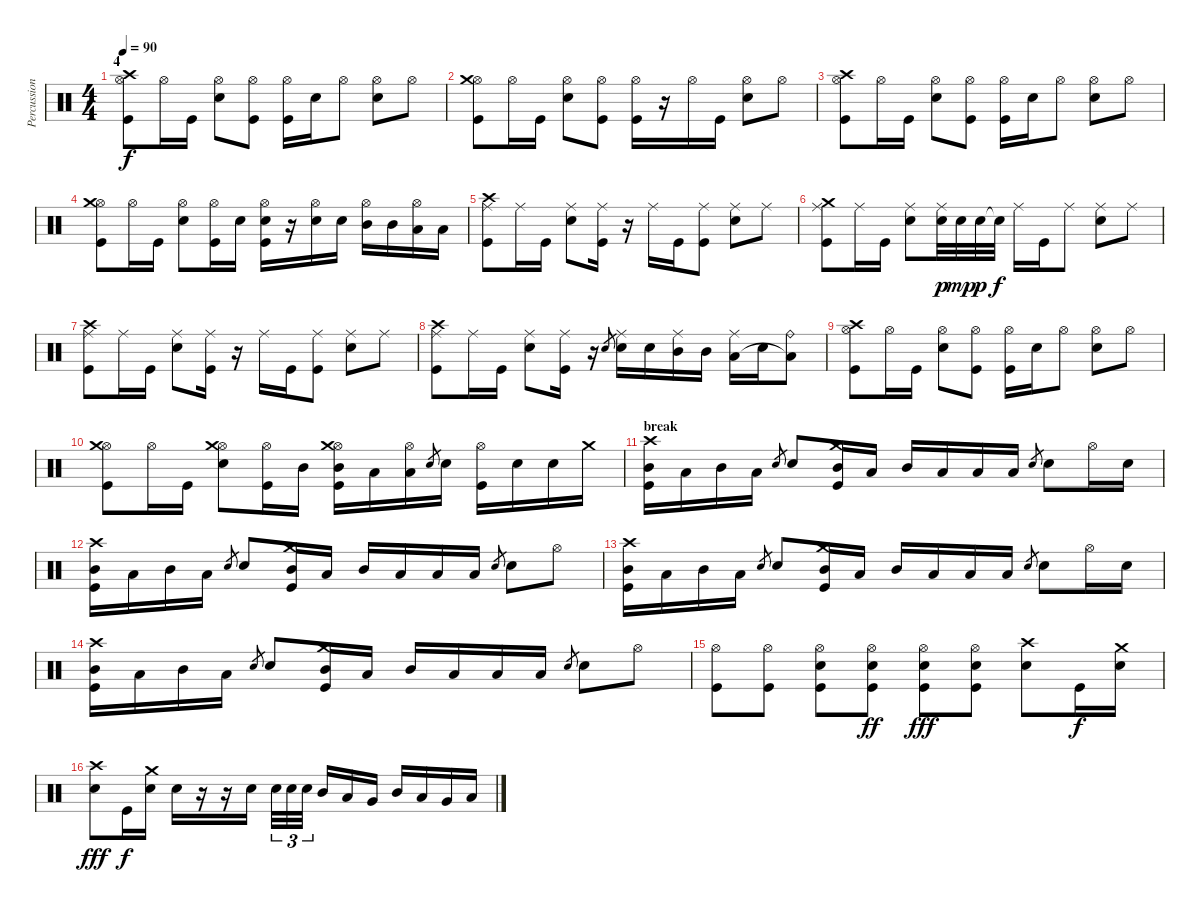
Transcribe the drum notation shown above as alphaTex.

\track ("Percussions" "Percussion") {instrument percussion}
\staff {score}
\articulation defaults
\ts (4 4)
\section ("" "4")
\tempo 90
\clef neutral
\ks c
("Hi-Hat (open)" "Crash high (hit)" "Kick (hit)").8{dy f} "Hi-Hat (open)".16 "Kick (hit)".16 ("Hi-Hat (open)" "Snare (hit) 2").8 ("Hi-Hat (open)" "Kick (hit)").8 ("Hi-Hat (open)" "Kick (hit)").16 "Snare (hit) 2".16 "Hi-Hat (open)".8 ("Hi-Hat (open)" "Snare (hit) 2").8 "Hi-Hat (open)".8 |
("Hi-Hat (open)" "Crash medium (hit)" "Kick (hit)").8 "Hi-Hat (open)".16 "Kick (hit)".16 ("Hi-Hat (open)" "Snare (hit) 2").8 ("Hi-Hat (open)" "Kick (hit)").8 ("Hi-Hat (open)" "Kick (hit)").16 r.16 "Hi-Hat (open)".16 "Kick (hit)".16 ("Hi-Hat (open)" "Snare (hit) 2").8 "Hi-Hat (open)".8 |
("Hi-Hat (open)" "Crash high (hit)" "Kick (hit)").8 "Hi-Hat (open)".16 "Kick (hit)".16 ("Hi-Hat (open)" "Snare (hit) 2").8 ("Hi-Hat (open)" "Kick (hit)").8 ("Hi-Hat (open)" "Kick (hit)").16 "Snare (hit) 2".16 "Hi-Hat (open)".8 ("Hi-Hat (open)" "Snare (hit) 2").8 "Hi-Hat (open)".8 |
("Hi-Hat (open)" "Crash medium (hit)" "Kick (hit)").8 "Hi-Hat (open)".16 "Kick (hit)".16 ("Hi-Hat (open)" "Snare (hit) 2").8 ("Hi-Hat (open)" "Kick (hit)").16 "Snare (hit) 2".16 ("Hi-Hat (open)" "Snare (hit) 2" "Kick (hit)").16 r.16 ("Hi-Hat (open)" "Snare (hit) 2").16 "Snare (hit) 2".16 ("Hi-Hat (open)" "Mid Tom (hit)").16 "Mid Tom (hit)".16 ("Hi-Hat (open)" "Low Tom (hit)").16 "Low Tom (hit)".16 |
("Ride (middle)" "Crash high (hit)" "Kick (hit)").8 "Ride (middle)".16 "Kick (hit)".16 ("Ride (middle)" "Snare (hit) 2").8 ("Ride (middle)" "Kick (hit)").16 r.16 "Ride (middle)".16 "Kick (hit)".16 ("Ride (middle)" "Kick (hit)").8 ("Ride (middle)" "Snare (hit) 2").8 "Ride (middle)".8 |
("Ride (middle)" "Crash medium (hit)" "Kick (hit)").8 "Ride (middle)".16 "Kick (hit)".16 ("Ride (middle)" "Snare (hit) 2").8 ("Ride (middle)" "Snare (hit) 2").32{dy p} "Snare (hit) 2".32{dy mp} "Snare (hit) 2".32{dy p} "Snare (hit)"{t}.32{dy f} "Ride (middle)".16 "Kick (hit)".16 "Ride (middle)".8 ("Ride (middle)" "Snare (hit) 2").8 "Ride (middle)".8 |
("Ride (middle)" "Crash high (hit)" "Kick (hit)").8 "Ride (middle)".16 "Kick (hit)".16 ("Ride (middle)" "Snare (hit) 2").8 ("Ride (middle)" "Kick (hit)").16 r.16 "Ride (middle)".16 "Kick (hit)".16 ("Ride (middle)" "Kick (hit)").8 ("Ride (middle)" "Snare (hit) 2").8 "Ride (middle)".8 |
("Ride (middle)" "Crash high (hit)" "Kick (hit)").8 "Ride (middle)".16 "Kick (hit)".16 ("Ride (middle)" "Snare (hit) 2").8 ("Ride (middle)" "Kick (hit)").16 r.16 "Snare (hit) 2".8{gr} ("Ride (middle)" "Snare (hit) 2").16 "Snare (hit) 2".16 ("Ride (middle)" "Mid Tom (hit)").16 "Mid Tom (hit)".16 ("Ride (middle)" "Low Tom (hit)").16 "Snare (hit) 2".16 ("Ride (bell)" "Low Tom (hit)"{t}).8 |
("Hi-Hat (open)" "Crash high (hit)" "Kick (hit)").8 "Hi-Hat (open)".16 "Kick (hit)".16 ("Hi-Hat (open)" "Snare (hit) 2").8 ("Hi-Hat (open)" "Kick (hit)").8 ("Hi-Hat (open)" "Kick (hit)").16 "Snare (hit) 2".16 "Hi-Hat (open)".8 ("Hi-Hat (open)" "Snare (hit) 2").8 "Hi-Hat (open)".8 |
("Hi-Hat (open)" "Crash medium (hit)" "Kick (hit)").8 "Hi-Hat (open)".16 "Kick (hit)".16 ("Hi-Hat (open)" "Crash medium (hit)" "Snare (hit) 2").8 ("Hi-Hat (open)" "Kick (hit)").16 "Mid Tom (hit)".16 ("Hi-Hat (open)" "Mid Tom (hit)" "Crash medium (hit)" "Kick (hit)").16 "Low Tom (hit)".16 ("Hi-Hat (open)" "Low Tom (hit)").16 "Snare (hit) 2".8{gr} "Snare (hit) 2".16 ("Hi-Hat (open)" "Kick (hit)").16 "Snare (hit) 2".16 "Snare (hit) 2".16 "Crash medium (hit)".16 |
\section ("" "break ")
("Mid Tom (hit)" "Kick (hit)" "Crash high (hit)").16 "Low Floor Tom (hit)".16 "Mid Tom (hit)".16 "Low Floor Tom (hit)".16 "Snare (hit) 2".8{gr} "Snare (hit) 2".8 ("Mid Tom (hit)" "Kick (hit)" "Crash medium (hit)").16 "Low Floor Tom (hit)".16 "Mid Tom (hit)".16 "Low Floor Tom (hit)".16 "Low Tom (hit)".16 "Low Floor Tom (hit)".16 "Snare (hit) 2".8{gr} "Snare (hit) 2".8 "Hi-Hat (open)".16 "Snare (hit) 2".16 |
("Mid Tom (hit)" "Kick (hit)" "Crash high (hit)").16 "Low Floor Tom (hit)".16 "Mid Tom (hit)".16 "Low Floor Tom (hit)".16 "Snare (hit) 2".8{gr} "Snare (hit) 2".8 ("Mid Tom (hit)" "Kick (hit)" "Crash medium (hit)").16 "Low Floor Tom (hit)".16 "Mid Tom (hit)".16 "Low Floor Tom (hit)".16 "Low Tom (hit)".16 "Low Floor Tom (hit)".16 "Snare (hit) 2".8{gr} "Snare (hit) 2".8 "Hi-Hat (open)".8 |
("Mid Tom (hit)" "Kick (hit)" "Crash high (hit)").16 "Low Floor Tom (hit)".16 "Mid Tom (hit)".16 "Low Floor Tom (hit)".16 "Snare (hit) 2".8{gr} "Snare (hit) 2".8 ("Mid Tom (hit)" "Kick (hit)" "Crash medium (hit)").16 "Low Floor Tom (hit)".16 "Mid Tom (hit)".16 "Low Floor Tom (hit)".16 "Low Tom (hit)".16 "Low Floor Tom (hit)".16 "Snare (hit) 2".8{gr} "Snare (hit) 2".8 "Hi-Hat (open)".16 "Snare (hit) 2".16 |
("Mid Tom (hit)" "Kick (hit)" "Crash high (hit)").16 "Low Floor Tom (hit)".16 "Mid Tom (hit)".16 "Low Floor Tom (hit)".16 "Snare (hit) 2".8{gr} "Snare (hit) 2".8 ("Mid Tom (hit)" "Kick (hit)" "Crash medium (hit)").16 "Low Floor Tom (hit)".16 "Mid Tom (hit)".16 "Low Floor Tom (hit)".16 "Low Tom (hit)".16 "Low Floor Tom (hit)".16 "Snare (hit) 2".8{gr} "Snare (hit) 2".8 "Hi-Hat (open)".8 |
("Hi-Hat (open)" "Kick (hit)").8 ("Hi-Hat (open)" "Kick (hit)").8 ("Hi-Hat (open)" "Snare (hit) 2" "Kick (hit)").8 ("Hi-Hat (open)" "Snare (hit) 2" "Kick (hit)").8{dy ff} ("Hi-Hat (open)" "Snare (hit) 2" "Kick (hit)").8{dy fff} ("Hi-Hat (open)" "Snare (hit) 2" "Kick (hit)").8 ("Crash high (hit)" "Snare (hit) 2").8 "Kick (hit)".16{dy f} ("Crash medium (hit)" "Snare (hit) 2").16 |
("Crash high (hit)" "Snare (hit) 2").8{dy fff} "Kick (hit)".16{dy f} ("Crash medium (hit)" "Snare (hit) 2").16 "Snare (hit) 2".16 r.16 r.16 "Snare (hit) 2".16 "Snare (hit) 2".32{tu (3 2)} "Snare (hit) 2".32{tu (3 2)} "Snare (hit) 2".32{tu (3 2)} "Mid Tom (hit)".16 "Low Tom (hit)".16 "Very Low Tom (hit)".16 "Mid Tom (hit)".16 "Low Tom (hit)".16 "Very Low Tom (hit)".16 "Low Floor Tom (hit)".16
